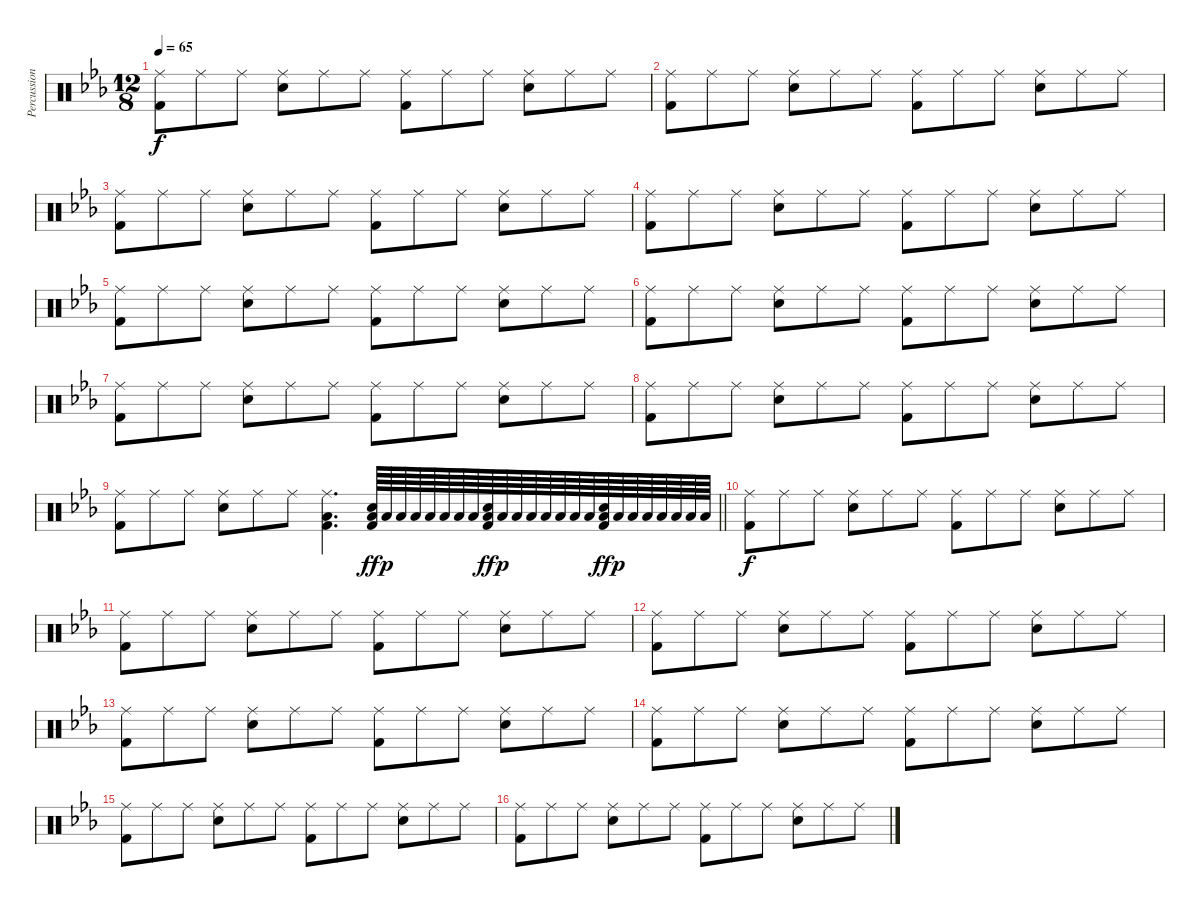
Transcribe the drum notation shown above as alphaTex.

\track ("Percussion" "Percussion") {instrument percussion}
\staff {score}
\articulation defaults
\ts (12 8)
\tempo 65
\clef neutral
\ks cminor
("Ride (middle)" "Kick (hit) 2").8{dy f} "Ride (middle)".8 "Ride (middle)".8 ("Ride (middle)" "Snare (hit) 2").8 "Ride (middle)".8 "Ride (middle)".8 ("Ride (middle)" "Kick (hit) 2").8 "Ride (middle)".8 "Ride (middle)".8 ("Ride (middle)" "Snare (hit) 2").8 "Ride (middle)".8 "Ride (middle)".8 |
("Ride (middle)" "Kick (hit) 2").8 "Ride (middle)".8 "Ride (middle)".8 ("Ride (middle)" "Snare (hit) 2").8 "Ride (middle)".8 "Ride (middle)".8 ("Ride (middle)" "Kick (hit) 2").8 "Ride (middle)".8 "Ride (middle)".8 ("Ride (middle)" "Snare (hit) 2").8 "Ride (middle)".8 "Ride (middle)".8 |
("Ride (middle)" "Kick (hit) 2").8 "Ride (middle)".8 "Ride (middle)".8 ("Ride (middle)" "Snare (hit) 2").8 "Ride (middle)".8 "Ride (middle)".8 ("Ride (middle)" "Kick (hit) 2").8 "Ride (middle)".8 "Ride (middle)".8 ("Ride (middle)" "Snare (hit) 2").8 "Ride (middle)".8 "Ride (middle)".8 |
("Ride (middle)" "Kick (hit) 2").8 "Ride (middle)".8 "Ride (middle)".8 ("Ride (middle)" "Snare (hit) 2").8 "Ride (middle)".8 "Ride (middle)".8 ("Ride (middle)" "Kick (hit) 2").8 "Ride (middle)".8 "Ride (middle)".8 ("Ride (middle)" "Snare (hit) 2").8 "Ride (middle)".8 "Ride (middle)".8 |
("Ride (middle)" "Kick (hit) 2").8 "Ride (middle)".8 "Ride (middle)".8 ("Ride (middle)" "Snare (hit) 2").8 "Ride (middle)".8 "Ride (middle)".8 ("Ride (middle)" "Kick (hit) 2").8 "Ride (middle)".8 "Ride (middle)".8 ("Ride (middle)" "Snare (hit) 2").8 "Ride (middle)".8 "Ride (middle)".8 |
("Ride (middle)" "Kick (hit) 2").8 "Ride (middle)".8 "Ride (middle)".8 ("Ride (middle)" "Snare (hit) 2").8 "Ride (middle)".8 "Ride (middle)".8 ("Ride (middle)" "Kick (hit) 2").8 "Ride (middle)".8 "Ride (middle)".8 ("Ride (middle)" "Snare (hit) 2").8 "Ride (middle)".8 "Ride (middle)".8 |
("Ride (middle)" "Kick (hit) 2").8 "Ride (middle)".8 "Ride (middle)".8 ("Ride (middle)" "Snare (hit) 2").8 "Ride (middle)".8 "Ride (middle)".8 ("Ride (middle)" "Kick (hit) 2").8 "Ride (middle)".8 "Ride (middle)".8 ("Ride (middle)" "Snare (hit) 2").8 "Ride (middle)".8 "Ride (middle)".8 |
("Ride (middle)" "Kick (hit) 2").8 "Ride (middle)".8 "Ride (middle)".8 ("Ride (middle)" "Snare (hit) 2").8 "Ride (middle)".8 "Ride (middle)".8 ("Ride (middle)" "Kick (hit) 2").8 "Ride (middle)".8 "Ride (middle)".8 ("Ride (middle)" "Snare (hit) 2").8 "Ride (middle)".8 "Ride (middle)".8 |
\barLineRight lightlight
("Ride (middle)" "Kick (hit) 2").8 "Ride (middle)".8 "Ride (middle)".8 ("Ride (middle)" "Snare (hit) 2").8 "Ride (middle)".8 "Ride (middle)".8 ("Ride (middle)" "Low Floor Tom (hit)" "Kick (hit) 2").4{d} ("Low Floor Tom (hit)" "Kick (hit) 2" "Snare (hit) 2").64{dy ff} "Low Floor Tom (hit)".64{dy p} "Low Floor Tom (hit)".64 "Low Floor Tom (hit)".64 "Low Floor Tom (hit)".64 "Low Floor Tom (hit)".64 "Low Floor Tom (hit)".64 "Low Floor Tom (hit)".64 ("Low Floor Tom (hit)" "Snare (hit) 2" "Kick (hit) 2").64{dy ff} "Low Floor Tom (hit)".64{dy p} "Low Floor Tom (hit)".64 "Low Floor Tom (hit)".64 "Low Floor Tom (hit)".64 "Low Floor Tom (hit)".64 "Low Floor Tom (hit)".64 "Low Floor Tom (hit)".64 ("Low Floor Tom (hit)" "Snare (hit) 2" "Kick (hit) 2").64{dy ff} "Low Floor Tom (hit)".64{dy p} "Low Floor Tom (hit)".64 "Low Floor Tom (hit)".64 "Low Floor Tom (hit)".64 "Low Floor Tom (hit)".64 "Low Floor Tom (hit)".64 "Low Floor Tom (hit)".64 |
("Ride (middle)" "Kick (hit) 2").8{dy f} "Ride (middle)".8 "Ride (middle)".8 ("Ride (middle)" "Snare (hit) 2").8 "Ride (middle)".8 "Ride (middle)".8 ("Ride (middle)" "Kick (hit) 2").8 "Ride (middle)".8 "Ride (middle)".8 ("Ride (middle)" "Snare (hit) 2").8 "Ride (middle)".8 "Ride (middle)".8 |
("Ride (middle)" "Kick (hit) 2").8 "Ride (middle)".8 "Ride (middle)".8 ("Ride (middle)" "Snare (hit) 2").8 "Ride (middle)".8 "Ride (middle)".8 ("Ride (middle)" "Kick (hit) 2").8 "Ride (middle)".8 "Ride (middle)".8 ("Ride (middle)" "Snare (hit) 2").8 "Ride (middle)".8 "Ride (middle)".8 |
("Ride (middle)" "Kick (hit) 2").8 "Ride (middle)".8 "Ride (middle)".8 ("Ride (middle)" "Snare (hit) 2").8 "Ride (middle)".8 "Ride (middle)".8 ("Ride (middle)" "Kick (hit) 2").8 "Ride (middle)".8 "Ride (middle)".8 ("Ride (middle)" "Snare (hit) 2").8 "Ride (middle)".8 "Ride (middle)".8 |
("Ride (middle)" "Kick (hit) 2").8 "Ride (middle)".8 "Ride (middle)".8 ("Ride (middle)" "Snare (hit) 2").8 "Ride (middle)".8 "Ride (middle)".8 ("Ride (middle)" "Kick (hit) 2").8 "Ride (middle)".8 "Ride (middle)".8 ("Ride (middle)" "Snare (hit) 2").8 "Ride (middle)".8 "Ride (middle)".8 |
("Ride (middle)" "Kick (hit) 2").8 "Ride (middle)".8 "Ride (middle)".8 ("Ride (middle)" "Snare (hit) 2").8 "Ride (middle)".8 "Ride (middle)".8 ("Ride (middle)" "Kick (hit) 2").8 "Ride (middle)".8 "Ride (middle)".8 ("Ride (middle)" "Snare (hit) 2").8 "Ride (middle)".8 "Ride (middle)".8 |
("Ride (middle)" "Kick (hit) 2").8 "Ride (middle)".8 "Ride (middle)".8 ("Ride (middle)" "Snare (hit) 2").8 "Ride (middle)".8 "Ride (middle)".8 ("Ride (middle)" "Kick (hit) 2").8 "Ride (middle)".8 "Ride (middle)".8 ("Ride (middle)" "Snare (hit) 2").8 "Ride (middle)".8 "Ride (middle)".8 |
("Ride (middle)" "Kick (hit) 2").8 "Ride (middle)".8 "Ride (middle)".8 ("Ride (middle)" "Snare (hit) 2").8 "Ride (middle)".8 "Ride (middle)".8 ("Ride (middle)" "Kick (hit) 2").8 "Ride (middle)".8 "Ride (middle)".8 ("Ride (middle)" "Snare (hit) 2").8 "Ride (middle)".8 "Ride (middle)".8
